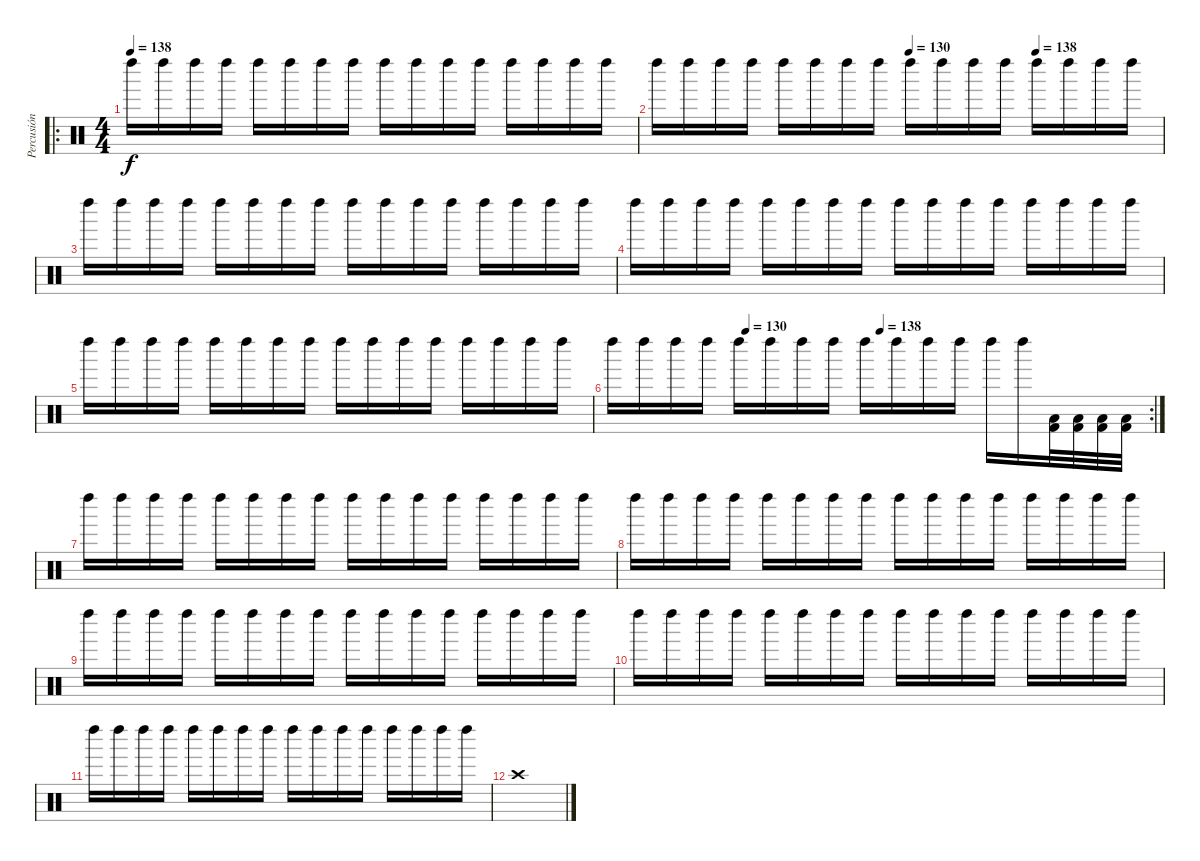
\track ("Percusión" "Percusión") {instrument percussion}
\staff {score}
\articulation defaults
\ro
\ts (4 4)
\tempo 138
\clef neutral
\ks c "Left Maraca (hit)".16{dy f} "Left Maraca (hit)".16 "Left Maraca (hit)".16 "Left Maraca (hit)".16 "Left Maraca (hit)".16 "Left Maraca (hit)".16 "Left Maraca (hit)".16 "Left Maraca (hit)".16 "Left Maraca (hit)".16 "Left Maraca (hit)".16 "Left Maraca (hit)".16 "Left Maraca (hit)".16 "Left Maraca (hit)".16 "Left Maraca (hit)".16 "Left Maraca (hit)".16 "Left Maraca (hit)".16
|
\tempo (130 0.5)
\tempo (138 0.75)
"Left Maraca (hit)".16 "Left Maraca (hit)".16 "Left Maraca (hit)".16 "Left Maraca (hit)".16 "Left Maraca (hit)".16 "Left Maraca (hit)".16 "Left Maraca (hit)".16 "Left Maraca (hit)".16 "Left Maraca (hit)".16 "Left Maraca (hit)".16 "Left Maraca (hit)".16 "Left Maraca (hit)".16 "Left Maraca (hit)".16 "Left Maraca (hit)".16 "Left Maraca (hit)".16 "Left Maraca (hit)".16 |
"Left Maraca (hit)".16 "Left Maraca (hit)".16 "Left Maraca (hit)".16 "Left Maraca (hit)".16 "Left Maraca (hit)".16 "Left Maraca (hit)".16 "Left Maraca (hit)".16 "Left Maraca (hit)".16 "Left Maraca (hit)".16 "Left Maraca (hit)".16 "Left Maraca (hit)".16 "Left Maraca (hit)".16 "Left Maraca (hit)".16 "Left Maraca (hit)".16 "Left Maraca (hit)".16 "Left Maraca (hit)".16 |
"Left Maraca (hit)".16 "Left Maraca (hit)".16 "Left Maraca (hit)".16 "Left Maraca (hit)".16 "Left Maraca (hit)".16 "Left Maraca (hit)".16 "Left Maraca (hit)".16 "Left Maraca (hit)".16 "Left Maraca (hit)".16 "Left Maraca (hit)".16 "Left Maraca (hit)".16 "Left Maraca (hit)".16 "Left Maraca (hit)".16 "Left Maraca (hit)".16 "Left Maraca (hit)".16 "Left Maraca (hit)".16 |
"Left Maraca (hit)".16 "Left Maraca (hit)".16 "Left Maraca (hit)".16 "Left Maraca (hit)".16 "Left Maraca (hit)".16 "Left Maraca (hit)".16 "Left Maraca (hit)".16 "Left Maraca (hit)".16 "Left Maraca (hit)".16 "Left Maraca (hit)".16 "Left Maraca (hit)".16 "Left Maraca (hit)".16 "Left Maraca (hit)".16 "Left Maraca (hit)".16 "Left Maraca (hit)".16 "Left Maraca (hit)".16 |
\rc 2
\tempo (130 0.25)
\tempo (138 0.5)
"Left Maraca (hit)".16 "Left Maraca (hit)".16 "Left Maraca (hit)".16 "Left Maraca (hit)".16 "Left Maraca (hit)".16 "Left Maraca (hit)".16 "Left Maraca (hit)".16 "Left Maraca (hit)".16 "Left Maraca (hit)".16 "Left Maraca (hit)".16 "Left Maraca (hit)".16 "Left Maraca (hit)".16 "Left Maraca (hit)".16 "Left Maraca (hit)".16 ("Kick (hit) 2" "Low Tom (hit)").32 ("Kick (hit) 2" "Low Tom (hit)").32 ("Kick (hit) 2" "Low Tom (hit)").32 ("Kick (hit) 2" "Low Tom (hit)").32 |
"Left Maraca (hit)".16 "Left Maraca (hit)".16 "Left Maraca (hit)".16 "Left Maraca (hit)".16 "Left Maraca (hit)".16 "Left Maraca (hit)".16 "Left Maraca (hit)".16 "Left Maraca (hit)".16 "Left Maraca (hit)".16 "Left Maraca (hit)".16 "Left Maraca (hit)".16 "Left Maraca (hit)".16 "Left Maraca (hit)".16 "Left Maraca (hit)".16 "Left Maraca (hit)".16 "Left Maraca (hit)".16 |
"Left Maraca (hit)".16 "Left Maraca (hit)".16 "Left Maraca (hit)".16 "Left Maraca (hit)".16 "Left Maraca (hit)".16 "Left Maraca (hit)".16 "Left Maraca (hit)".16 "Left Maraca (hit)".16 "Left Maraca (hit)".16 "Left Maraca (hit)".16 "Left Maraca (hit)".16 "Left Maraca (hit)".16 "Left Maraca (hit)".16 "Left Maraca (hit)".16 "Left Maraca (hit)".16 "Left Maraca (hit)".16 |
"Left Maraca (hit)".16 "Left Maraca (hit)".16 "Left Maraca (hit)".16 "Left Maraca (hit)".16 "Left Maraca (hit)".16 "Left Maraca (hit)".16 "Left Maraca (hit)".16 "Left Maraca (hit)".16 "Left Maraca (hit)".16 "Left Maraca (hit)".16 "Left Maraca (hit)".16 "Left Maraca (hit)".16 "Left Maraca (hit)".16 "Left Maraca (hit)".16 "Left Maraca (hit)".16 "Left Maraca (hit)".16 |
"Left Maraca (hit)".16 "Left Maraca (hit)".16 "Left Maraca (hit)".16 "Left Maraca (hit)".16 "Left Maraca (hit)".16 "Left Maraca (hit)".16 "Left Maraca (hit)".16 "Left Maraca (hit)".16 "Left Maraca (hit)".16 "Left Maraca (hit)".16 "Left Maraca (hit)".16 "Left Maraca (hit)".16 "Left Maraca (hit)".16 "Left Maraca (hit)".16 "Left Maraca (hit)".16 "Left Maraca (hit)".16 |
"Left Maraca (hit)".16 "Left Maraca (hit)".16 "Left Maraca (hit)".16 "Left Maraca (hit)".16 "Left Maraca (hit)".16 "Left Maraca (hit)".16 "Left Maraca (hit)".16 "Left Maraca (hit)".16 "Left Maraca (hit)".16 "Left Maraca (hit)".16 "Left Maraca (hit)".16 "Left Maraca (hit)".16 "Left Maraca (hit)".16 "Left Maraca (hit)".16 "Left Maraca (hit)".16 "Left Maraca (hit)".16 |
"Crash high (hit)".1
